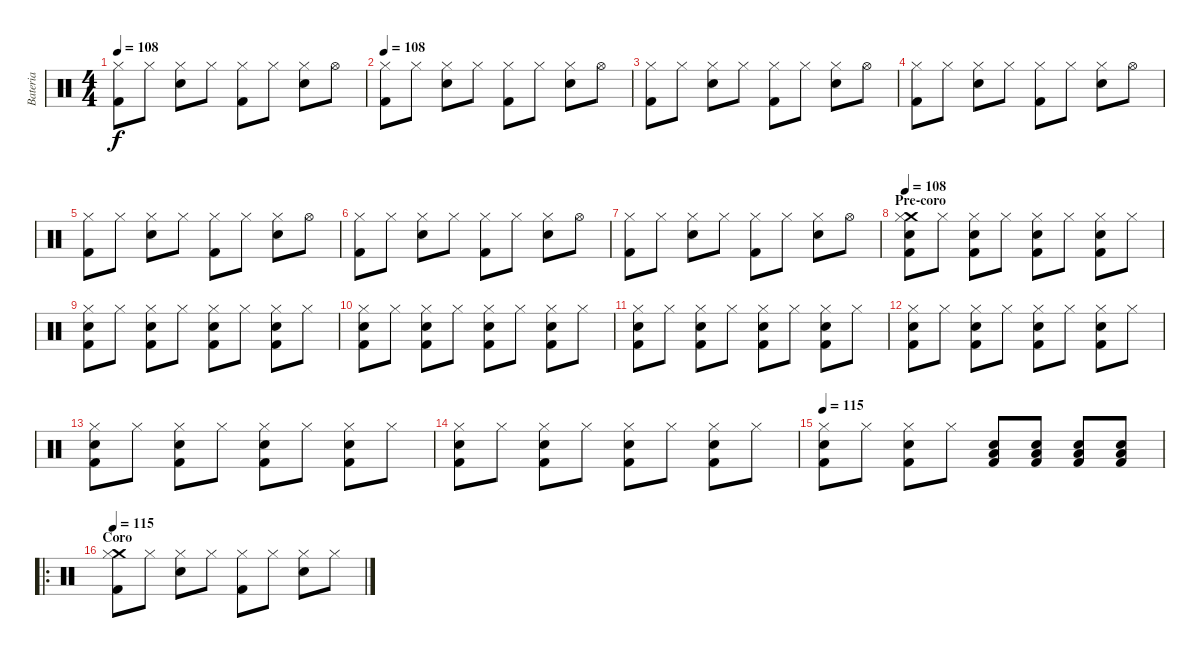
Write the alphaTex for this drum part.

\track ("Bateria" "Bateria") {instrument percussion}
\staff {score}
\articulation defaults
\ts (4 4)
\tempo 108
\clef neutral
\ks c
("Hi-Hat (closed)" "Kick (hit) 2").8{dy f} "Hi-Hat (closed)".8 ("Hi-Hat (closed)" "Electric Snare (hit)").8 "Hi-Hat (closed)".8 ("Hi-Hat (closed)" "Kick (hit) 2").8 "Hi-Hat (closed)".8 ("Hi-Hat (closed)" "Electric Snare (hit)").8 "Hi-Hat (open)".8 |
\tempo 108
("Hi-Hat (closed)" "Kick (hit) 2").8 "Hi-Hat (closed)".8 ("Hi-Hat (closed)" "Electric Snare (hit)").8 "Hi-Hat (closed)".8 ("Hi-Hat (closed)" "Kick (hit) 2").8 "Hi-Hat (closed)".8 ("Hi-Hat (closed)" "Electric Snare (hit)").8 "Hi-Hat (open)".8 |
("Hi-Hat (closed)" "Kick (hit) 2").8 "Hi-Hat (closed)".8 ("Hi-Hat (closed)" "Electric Snare (hit)").8 "Hi-Hat (closed)".8 ("Hi-Hat (closed)" "Kick (hit) 2").8 "Hi-Hat (closed)".8 ("Hi-Hat (closed)" "Electric Snare (hit)").8 "Hi-Hat (open)".8 |
("Hi-Hat (closed)" "Kick (hit) 2").8 "Hi-Hat (closed)".8 ("Hi-Hat (closed)" "Electric Snare (hit)").8 "Hi-Hat (closed)".8 ("Hi-Hat (closed)" "Kick (hit) 2").8 "Hi-Hat (closed)".8 ("Hi-Hat (closed)" "Electric Snare (hit)").8 "Hi-Hat (open)".8 |
("Hi-Hat (closed)" "Kick (hit) 2").8 "Hi-Hat (closed)".8 ("Hi-Hat (closed)" "Electric Snare (hit)").8 "Hi-Hat (closed)".8 ("Hi-Hat (closed)" "Kick (hit) 2").8 "Hi-Hat (closed)".8 ("Hi-Hat (closed)" "Electric Snare (hit)").8 "Hi-Hat (open)".8 |
("Hi-Hat (closed)" "Kick (hit) 2").8 "Hi-Hat (closed)".8 ("Hi-Hat (closed)" "Electric Snare (hit)").8 "Hi-Hat (closed)".8 ("Hi-Hat (closed)" "Kick (hit) 2").8 "Hi-Hat (closed)".8 ("Hi-Hat (closed)" "Electric Snare (hit)").8 "Hi-Hat (open)".8 |
("Hi-Hat (closed)" "Kick (hit) 2").8 "Hi-Hat (closed)".8 ("Hi-Hat (closed)" "Electric Snare (hit)").8 "Hi-Hat (closed)".8 ("Hi-Hat (closed)" "Kick (hit) 2").8 "Hi-Hat (closed)".8 ("Hi-Hat (closed)" "Electric Snare (hit)").8 "Hi-Hat (open)".8 |
\section ("" "Pre-coro")
\tempo 108
("Crash medium (hit)" "Hi-Hat (closed)" "Electric Snare (hit)" "Kick (hit) 2").8 "Hi-Hat (closed)".8 ("Hi-Hat (closed)" "Electric Snare (hit)" "Kick (hit) 2").8 "Hi-Hat (closed)".8 ("Hi-Hat (closed)" "Electric Snare (hit)" "Kick (hit) 2").8 "Hi-Hat (closed)".8 ("Hi-Hat (closed)" "Electric Snare (hit)" "Kick (hit) 2").8 "Hi-Hat (closed)".8 |
("Hi-Hat (closed)" "Electric Snare (hit)" "Kick (hit) 2").8 "Hi-Hat (closed)".8 ("Hi-Hat (closed)" "Electric Snare (hit)" "Kick (hit) 2").8 "Hi-Hat (closed)".8 ("Hi-Hat (closed)" "Electric Snare (hit)" "Kick (hit) 2").8 "Hi-Hat (closed)".8 ("Hi-Hat (closed)" "Electric Snare (hit)" "Kick (hit) 2").8 "Hi-Hat (closed)".8 |
("Hi-Hat (closed)" "Electric Snare (hit)" "Kick (hit) 2").8 "Hi-Hat (closed)".8 ("Hi-Hat (closed)" "Electric Snare (hit)" "Kick (hit) 2").8 "Hi-Hat (closed)".8 ("Hi-Hat (closed)" "Electric Snare (hit)" "Kick (hit) 2").8 "Hi-Hat (closed)".8 ("Hi-Hat (closed)" "Electric Snare (hit)" "Kick (hit) 2").8 "Hi-Hat (closed)".8 |
("Hi-Hat (closed)" "Electric Snare (hit)" "Kick (hit) 2").8 "Hi-Hat (closed)".8 ("Hi-Hat (closed)" "Electric Snare (hit)" "Kick (hit) 2").8 "Hi-Hat (closed)".8 ("Hi-Hat (closed)" "Electric Snare (hit)" "Kick (hit) 2").8 "Hi-Hat (closed)".8 ("Hi-Hat (closed)" "Electric Snare (hit)" "Kick (hit) 2").8 "Hi-Hat (closed)".8 |
("Hi-Hat (closed)" "Electric Snare (hit)" "Kick (hit) 2").8 "Hi-Hat (closed)".8 ("Hi-Hat (closed)" "Electric Snare (hit)" "Kick (hit) 2").8 "Hi-Hat (closed)".8 ("Hi-Hat (closed)" "Electric Snare (hit)" "Kick (hit) 2").8 "Hi-Hat (closed)".8 ("Hi-Hat (closed)" "Electric Snare (hit)" "Kick (hit) 2").8 "Hi-Hat (closed)".8 |
("Hi-Hat (closed)" "Electric Snare (hit)" "Kick (hit) 2").8 "Hi-Hat (closed)".8 ("Hi-Hat (closed)" "Electric Snare (hit)" "Kick (hit) 2").8 "Hi-Hat (closed)".8 ("Hi-Hat (closed)" "Electric Snare (hit)" "Kick (hit) 2").8 "Hi-Hat (closed)".8 ("Hi-Hat (closed)" "Electric Snare (hit)" "Kick (hit) 2").8 "Hi-Hat (closed)".8 |
("Hi-Hat (closed)" "Electric Snare (hit)" "Kick (hit) 2").8 "Hi-Hat (closed)".8 ("Hi-Hat (closed)" "Electric Snare (hit)" "Kick (hit) 2").8 "Hi-Hat (closed)".8 ("Hi-Hat (closed)" "Electric Snare (hit)" "Kick (hit) 2").8 "Hi-Hat (closed)".8 ("Hi-Hat (closed)" "Electric Snare (hit)" "Kick (hit) 2").8 "Hi-Hat (closed)".8 |
\tempo 115
("Hi-Hat (closed)" "Electric Snare (hit)" "Kick (hit) 2").8 "Hi-Hat (closed)".8 ("Hi-Hat (closed)" "Electric Snare (hit)" "Kick (hit) 2").8 "Hi-Hat (closed)".8 ("Low Tom (hit)" "Electric Snare (hit)" "Kick (hit) 2").8 ("Low Tom (hit)" "Electric Snare (hit)" "Kick (hit) 2").8 ("Low Tom (hit)" "Electric Snare (hit)" "Kick (hit) 2").8 ("Low Tom (hit)" "Electric Snare (hit)" "Kick (hit) 2").8 |
\ro
\section ("" "Coro")
\tempo 115
("Crash medium (hit)" "Hi-Hat (closed)" "Kick (hit) 2").8 "Hi-Hat (closed)".8 ("Hi-Hat (closed)" "Electric Snare (hit)").8 "Hi-Hat (closed)".8 ("Hi-Hat (closed)" "Kick (hit) 2").8 "Hi-Hat (closed)".8 ("Hi-Hat (closed)" "Electric Snare (hit)").8 "Hi-Hat (closed)".8
